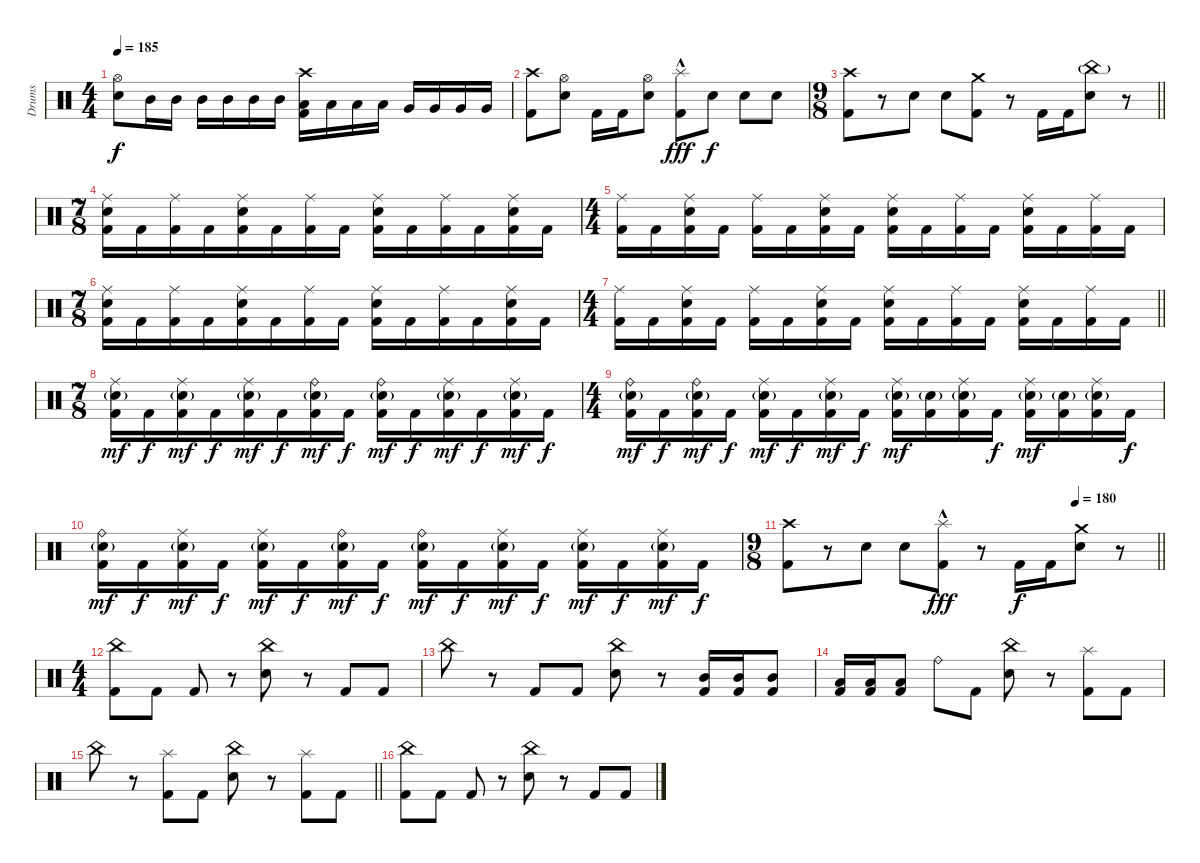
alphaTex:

\track ("Drums" "Drums") {instrument percussion}
\staff {score}
\articulation defaults
\ts (4 4)
\tempo 185
\clef neutral
\ks c
("Hi-Hat (open)" "Electric Snare (hit)").8{dy f} "Mid Tom (hit)".16 "Mid Tom (hit)".16 "Mid Tom (hit)".16 "Mid Tom (hit)".16 "Mid Tom (hit)".16 "Mid Tom (hit)".16 ("Crash high (hit)" "Low Tom (hit)" "Kick (hit) 2").16 "Low Tom (hit)".16 "Low Tom (hit)".16 "Low Tom (hit)".16 "Very Low Tom (hit)".16 "Very Low Tom (hit)".16 "Very Low Tom (hit)".16 "Very Low Tom (hit)".16 |
("Crash high (hit)" "Kick (hit) 2").8 ("Hi-Hat (open)" "Electric Snare (hit)").8 "Kick (hit) 2".16 "Kick (hit) 2".16 ("Hi-Hat (open)" "Electric Snare (hit)").8 ("Splash (hit)"{hac} "Kick (hit) 2").8{dy fff} "Electric Snare (hit)".8{dy f} "Electric Snare (hit)".8 "Electric Snare (hit)".8 |
\ts (9 8)
\barLineRight lightlight
("Crash high (hit)" "Kick (hit) 2").8 r.8 "Electric Snare (hit)".8 "Electric Snare (hit)".8 ("Crash medium (hit)" "Kick (hit) 2").8 r.8 "Kick (hit) 2".16 "Kick (hit) 2".16 ("China (hit)"{g} "Electric Snare (hit)").8 r.8 |
\ts (7 8)
("Ride (middle)" "Electric Snare (hit)" "Kick (hit) 2").16 "Kick (hit) 2".16 ("Ride (middle)" "Kick (hit) 2").16 "Kick (hit) 2".16 ("Ride (middle)" "Electric Snare (hit)" "Kick (hit) 2").16 "Kick (hit) 2".16 ("Ride (middle)" "Kick (hit) 2").16 "Kick (hit) 2".16 ("Ride (middle)" "Electric Snare (hit)" "Kick (hit) 2").16 "Kick (hit) 2".16 ("Ride (middle)" "Kick (hit) 2").16 "Kick (hit) 2".16 ("Ride (middle)" "Electric Snare (hit)" "Kick (hit) 2").16 "Kick (hit) 2".16 |
\ts (4 4)
("Ride (middle)" "Kick (hit) 2").16 "Kick (hit) 2".16 ("Ride (middle)" "Electric Snare (hit)" "Kick (hit) 2").16 "Kick (hit) 2".16 ("Ride (middle)" "Kick (hit) 2").16 "Kick (hit) 2".16 ("Ride (middle)" "Electric Snare (hit)" "Kick (hit) 2").16 "Kick (hit) 2".16 ("Ride (middle)" "Electric Snare (hit)" "Kick (hit) 2").16 "Kick (hit) 2".16 ("Ride (middle)" "Kick (hit) 2").16 "Kick (hit) 2".16 ("Ride (middle)" "Electric Snare (hit)" "Kick (hit) 2").16 "Kick (hit) 2".16 ("Ride (middle)" "Kick (hit) 2").16 "Kick (hit) 2".16 |
\ts (7 8)
("Ride (middle)" "Electric Snare (hit)" "Kick (hit) 2").16 "Kick (hit) 2".16 ("Ride (middle)" "Kick (hit) 2").16 "Kick (hit) 2".16 ("Ride (middle)" "Electric Snare (hit)" "Kick (hit) 2").16 "Kick (hit) 2".16 ("Ride (middle)" "Kick (hit) 2").16 "Kick (hit) 2".16 ("Ride (middle)" "Electric Snare (hit)" "Kick (hit) 2").16 "Kick (hit) 2".16 ("Ride (middle)" "Kick (hit) 2").16 "Kick (hit) 2".16 ("Ride (middle)" "Electric Snare (hit)" "Kick (hit) 2").16 "Kick (hit) 2".16 |
\ts (4 4)
\barLineRight lightlight
("Ride (middle)" "Kick (hit) 2").16 "Kick (hit) 2".16 ("Ride (middle)" "Electric Snare (hit)" "Kick (hit) 2").16 "Kick (hit) 2".16 ("Ride (middle)" "Kick (hit) 2").16 "Kick (hit) 2".16 ("Ride (middle)" "Electric Snare (hit)" "Kick (hit) 2").16 "Kick (hit) 2".16 ("Ride (middle)" "Electric Snare (hit)" "Kick (hit) 2").16 "Kick (hit) 2".16 ("Ride (middle)" "Kick (hit) 2").16 "Kick (hit) 2".16 ("Ride (middle)" "Electric Snare (hit)" "Kick (hit) 2").16 "Kick (hit) 2".16 ("Ride (middle)" "Kick (hit) 2").16 "Kick (hit) 2".16 |
\ts (7 8)
("Ride (middle)" "Electric Snare (hit)"{g} "Kick (hit) 2").16{dy mf} "Kick (hit) 2".16{dy f} ("Ride (middle)" "Electric Snare (hit)"{g} "Kick (hit) 2").16{dy mf} "Kick (hit) 2".16{dy f} ("Ride (middle)" "Electric Snare (hit)"{g} "Kick (hit) 2").16{dy mf} "Kick (hit) 2".16{dy f} ("Ride (bell)" "Electric Snare (hit)"{g} "Kick (hit) 2").16{dy mf} "Kick (hit) 2".16{dy f} ("Ride (bell)" "Electric Snare (hit)"{g} "Kick (hit) 2").16{dy mf} "Kick (hit) 2".16{dy f} ("Ride (middle)" "Electric Snare (hit)"{g} "Kick (hit) 2").16{dy mf} "Kick (hit) 2".16{dy f} ("Ride (middle)" "Electric Snare (hit)"{g} "Kick (hit) 2").16{dy mf} "Kick (hit) 2".16{dy f} |
\ts (4 4)
("Ride (bell)" "Electric Snare (hit)"{g} "Kick (hit) 2").16{dy mf} "Kick (hit) 2".16{dy f} ("Ride (bell)" "Electric Snare (hit)"{g} "Kick (hit) 2").16{dy mf} "Kick (hit) 2".16{dy f} ("Ride (middle)" "Electric Snare (hit)"{g} "Kick (hit) 2").16{dy mf} "Kick (hit) 2".16{dy f} ("Ride (middle)" "Electric Snare (hit)"{g} "Kick (hit) 2").16{dy mf} "Kick (hit) 2".16{dy f} ("Ride (middle)" "Electric Snare (hit)"{g} "Kick (hit) 2").16{dy mf} ("Electric Snare (hit)"{g} "Kick (hit) 2").16 ("Ride (middle)" "Electric Snare (hit)"{g} "Kick (hit) 2").16 "Kick (hit) 2".16{dy f} ("Ride (middle)" "Electric Snare (hit)"{g} "Kick (hit) 2").16{dy mf} ("Electric Snare (hit)"{g} "Kick (hit) 2").16 ("Ride (middle)" "Electric Snare (hit)"{g} "Kick (hit) 2").16 "Kick (hit) 2".16{dy f} |
("Ride (bell)" "Electric Snare (hit)"{g} "Kick (hit) 2").16{dy mf} "Kick (hit) 2".16{dy f} ("Ride (middle)" "Electric Snare (hit)"{g} "Kick (hit) 2").16{dy mf} "Kick (hit) 2".16{dy f} ("Ride (middle)" "Electric Snare (hit)"{g} "Kick (hit) 2").16{dy mf} "Kick (hit) 2".16{dy f} ("Ride (bell)" "Electric Snare (hit)"{g} "Kick (hit) 2").16{dy mf} "Kick (hit) 2".16{dy f} ("Ride (bell)" "Electric Snare (hit)"{g} "Kick (hit) 2").16{dy mf} "Kick (hit) 2".16{dy f} ("Ride (middle)" "Electric Snare (hit)"{g} "Kick (hit) 2").16{dy mf} "Kick (hit) 2".16{dy f} ("Ride (middle)" "Electric Snare (hit)"{g} "Kick (hit) 2").16{dy mf} "Kick (hit) 2".16{dy f} ("Ride (middle)" "Electric Snare (hit)"{g} "Kick (hit) 2").16{dy mf} "Kick (hit) 2".16{dy f} |
\ts (9 8)
\tempo (180 0.7777777777777778)
\barLineRight lightlight
("Crash high (hit)" "Kick (hit) 2").8 r.8 "Electric Snare (hit)".8 "Electric Snare (hit)".8 ("Splash (hit)"{hac} "Kick (hit) 2").8{dy fff} r.8 "Kick (hit) 2".16{dy f} "Kick (hit) 2".16 ("Crash medium (hit)" "Electric Snare (hit)").8 r.8 |
\ts (4 4)
("China (hit)" "Kick (hit) 2").8 "Kick (hit) 2".8 "Kick (hit) 2".8 r.8 ("China (hit)" "Electric Snare (hit)").8 r.8 "Kick (hit) 2".8 "Kick (hit) 2".8 |
"China (hit)".8 r.8 "Kick (hit) 2".8 "Kick (hit) 2".8 ("China (hit)" "Electric Snare (hit)").8 r.8 ("Mid Tom (hit)" "Kick (hit) 2").16 ("Mid Tom (hit)" "Kick (hit) 2").16 ("Mid Tom (hit)" "Kick (hit) 2").8 |
("Low Tom (hit)" "Kick (hit) 2").16 ("Low Tom (hit)" "Kick (hit) 2").16 ("Low Tom (hit)" "Kick (hit) 2").8 "Ride (bell)".8 "Kick (hit) 2".8 ("China (hit)" "Electric Snare (hit)").8 r.8 ("Splash (hit)" "Kick (hit) 2").8 "Kick (hit) 2".8 |
\barLineRight lightlight "China (hit)".8
r.8 ("Splash (hit)" "Kick (hit) 2").8 "Kick (hit) 2".8 ("China (hit)" "Electric Snare (hit)").8 r.8 ("Splash (hit)" "Kick (hit) 2").8 "Kick (hit) 2".8 |
("China (hit)" "Kick (hit) 2").8 "Kick (hit) 2".8 "Kick (hit) 2".8 r.8 ("China (hit)" "Electric Snare (hit)").8 r.8 "Kick (hit) 2".8 "Kick (hit) 2".8
